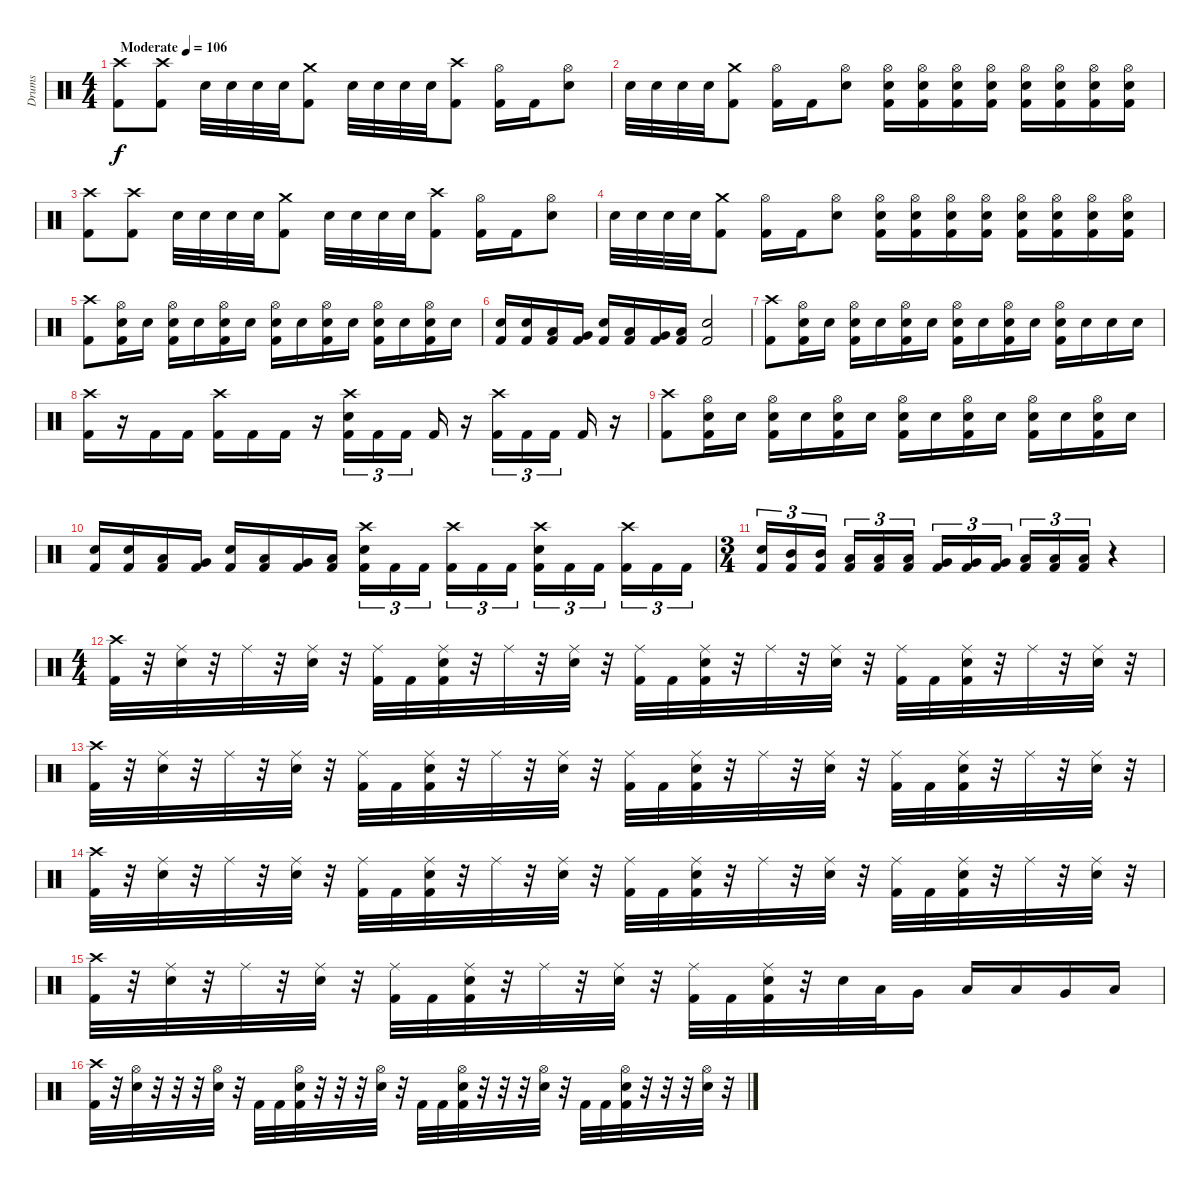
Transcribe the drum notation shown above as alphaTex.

\track ("Drums" "Drums") {instrument percussion}
\staff {score}
\articulation defaults
\ts (4 4)
\tempo (106 "Moderate")
\clef neutral
\ks c
("Crash high (hit)" "Kick (hit) 2").8{dy f} ("Crash high (hit)" "Kick (hit) 2").8 "Electric Snare (hit)".32 "Electric Snare (hit)".32 "Electric Snare (hit)".32 "Electric Snare (hit)".32 ("Crash medium (hit)" "Kick (hit) 2").8 "Electric Snare (hit)".32 "Electric Snare (hit)".32 "Electric Snare (hit)".32 "Electric Snare (hit)".32 ("Crash high (hit)" "Kick (hit) 2").8 ("Hi-Hat (open)" "Kick (hit) 2").16 "Kick (hit) 2".16 ("Hi-Hat (open)" "Electric Snare (hit)").8 |
"Electric Snare (hit)".32 "Electric Snare (hit)".32 "Electric Snare (hit)".32 "Electric Snare (hit)".32 ("Crash medium (hit)" "Kick (hit) 2").8 ("Hi-Hat (open)" "Kick (hit) 2").16 "Kick (hit) 2".16 ("Hi-Hat (open)" "Electric Snare (hit)").8 ("Hi-Hat (open)" "Electric Snare (hit)" "Kick (hit) 2").16 ("Hi-Hat (open)" "Electric Snare (hit)" "Kick (hit) 2").16 ("Hi-Hat (open)" "Electric Snare (hit)" "Kick (hit) 2").16 ("Hi-Hat (open)" "Electric Snare (hit)" "Kick (hit) 2").16 ("Hi-Hat (open)" "Electric Snare (hit)" "Kick (hit) 2").16 ("Hi-Hat (open)" "Electric Snare (hit)" "Kick (hit) 2").16 ("Hi-Hat (open)" "Electric Snare (hit)" "Kick (hit) 2").16 ("Hi-Hat (open)" "Electric Snare (hit)" "Kick (hit) 2").16 |
("Crash high (hit)" "Kick (hit) 2").8 ("Crash high (hit)" "Kick (hit) 2").8 "Electric Snare (hit)".32 "Electric Snare (hit)".32 "Electric Snare (hit)".32 "Electric Snare (hit)".32 ("Crash medium (hit)" "Kick (hit) 2").8 "Electric Snare (hit)".32 "Electric Snare (hit)".32 "Electric Snare (hit)".32 "Electric Snare (hit)".32 ("Crash high (hit)" "Kick (hit) 2").8 ("Hi-Hat (open)" "Kick (hit) 2").16 "Kick (hit) 2".16 ("Hi-Hat (open)" "Electric Snare (hit)").8 |
"Electric Snare (hit)".32 "Electric Snare (hit)".32 "Electric Snare (hit)".32 "Electric Snare (hit)".32 ("Crash medium (hit)" "Kick (hit) 2").8 ("Hi-Hat (open)" "Kick (hit) 2").16 "Kick (hit) 2".16 ("Hi-Hat (open)" "Electric Snare (hit)").8 ("Hi-Hat (open)" "Electric Snare (hit)" "Kick (hit) 2").16 ("Hi-Hat (open)" "Electric Snare (hit)" "Kick (hit) 2").16 ("Hi-Hat (open)" "Electric Snare (hit)" "Kick (hit) 2").16 ("Hi-Hat (open)" "Electric Snare (hit)" "Kick (hit) 2").16 ("Hi-Hat (open)" "Electric Snare (hit)" "Kick (hit) 2").16 ("Hi-Hat (open)" "Electric Snare (hit)" "Kick (hit) 2").16 ("Hi-Hat (open)" "Electric Snare (hit)" "Kick (hit) 2").16 ("Hi-Hat (open)" "Electric Snare (hit)" "Kick (hit) 2").16 |
("Crash high (hit)" "Kick (hit) 2").8 ("Hi-Hat (open)" "Electric Snare (hit)" "Kick (hit) 2").16 "Electric Snare (hit)".16 ("Hi-Hat (open)" "Electric Snare (hit)" "Kick (hit) 2").16 "Electric Snare (hit)".16 ("Hi-Hat (open)" "Electric Snare (hit)" "Kick (hit) 2").16 "Electric Snare (hit)".16 ("Hi-Hat (open)" "Electric Snare (hit)" "Kick (hit) 2").16 "Electric Snare (hit)".16 ("Hi-Hat (open)" "Electric Snare (hit)" "Kick (hit) 2").16 "Electric Snare (hit)".16 ("Hi-Hat (open)" "Electric Snare (hit)" "Kick (hit) 2").16 "Electric Snare (hit)".16 ("Hi-Hat (open)" "Electric Snare (hit)" "Kick (hit) 2").16 "Electric Snare (hit)".16 |
("Electric Snare (hit)" "Kick (hit) 2").16 ("Electric Snare (hit)" "Kick (hit) 2").16 ("Low Tom (hit)" "Kick (hit) 2").16 ("Very Low Tom (hit)" "Kick (hit) 2").16 ("Electric Snare (hit)" "Kick (hit) 2").16 ("Low Tom (hit)" "Kick (hit) 2").16 ("Very Low Tom (hit)" "Kick (hit) 2").16 ("Low Floor Tom (hit)" "Kick (hit) 2").16 ("Electric Snare (hit)" "Kick (hit) 2").2 |
("Crash high (hit)" "Kick (hit) 2").8 ("Hi-Hat (open)" "Electric Snare (hit)" "Kick (hit) 2").16 "Electric Snare (hit)".16 ("Hi-Hat (open)" "Electric Snare (hit)" "Kick (hit) 2").16 "Electric Snare (hit)".16 ("Hi-Hat (open)" "Electric Snare (hit)" "Kick (hit) 2").16 "Electric Snare (hit)".16 ("Hi-Hat (open)" "Electric Snare (hit)" "Kick (hit) 2").16 "Electric Snare (hit)".16 ("Hi-Hat (open)" "Electric Snare (hit)" "Kick (hit) 2").16 "Electric Snare (hit)".16 ("Hi-Hat (open)" "Electric Snare (hit)" "Kick (hit) 2").16 "Electric Snare (hit)".16 "Electric Snare (hit)".16 "Electric Snare (hit)".16 |
("Crash high (hit)" "Kick (hit) 2").16 r.16 "Kick (hit) 2".16 "Kick (hit) 2".16 ("Crash high (hit)" "Kick (hit) 2").16 "Kick (hit) 2".16 "Kick (hit) 2".16 r.16 ("Crash high (hit)" "Electric Snare (hit)" "Kick (hit) 2").16{tu (3 2)} "Kick (hit) 2".16{tu (3 2)} "Kick (hit) 2".16{tu (3 2) beam splitsecondary} "Kick (hit) 2".16 r.16 ("Crash high (hit)" "Kick (hit) 2").16{tu (3 2)} "Kick (hit) 2".16{tu (3 2)} "Kick (hit) 2".16{tu (3 2) beam splitsecondary} "Kick (hit) 2".16 r.16 |
("Crash high (hit)" "Kick (hit) 2").8 ("Hi-Hat (open)" "Electric Snare (hit)" "Kick (hit) 2").16 "Electric Snare (hit)".16 ("Hi-Hat (open)" "Electric Snare (hit)" "Kick (hit) 2").16 "Electric Snare (hit)".16 ("Hi-Hat (open)" "Electric Snare (hit)" "Kick (hit) 2").16 "Electric Snare (hit)".16 ("Hi-Hat (open)" "Electric Snare (hit)" "Kick (hit) 2").16 "Electric Snare (hit)".16 ("Hi-Hat (open)" "Electric Snare (hit)" "Kick (hit) 2").16 "Electric Snare (hit)".16 ("Hi-Hat (open)" "Electric Snare (hit)" "Kick (hit) 2").16 "Electric Snare (hit)".16 ("Hi-Hat (open)" "Electric Snare (hit)" "Kick (hit) 2").16 "Electric Snare (hit)".16 |
("Electric Snare (hit)" "Kick (hit) 2").16 ("Electric Snare (hit)" "Kick (hit) 2").16 ("Low Tom (hit)" "Kick (hit) 2").16 ("Very Low Tom (hit)" "Kick (hit) 2").16 ("Electric Snare (hit)" "Kick (hit) 2").16 ("Low Tom (hit)" "Kick (hit) 2").16 ("Very Low Tom (hit)" "Kick (hit) 2").16 ("Low Floor Tom (hit)" "Kick (hit) 2").16 ("Crash high (hit)" "Electric Snare (hit)" "Kick (hit) 2").16{tu (3 2)} "Kick (hit) 2".16{tu (3 2)} "Kick (hit) 2".16{tu (3 2) beam splitsecondary} ("Crash high (hit)" "Kick (hit) 2").16{tu (3 2)} "Kick (hit) 2".16{tu (3 2)} "Kick (hit) 2".16{tu (3 2)} ("Crash high (hit)" "Electric Snare (hit)" "Kick (hit) 2").16{tu (3 2)} "Kick (hit) 2".16{tu (3 2)} "Kick (hit) 2".16{tu (3 2) beam splitsecondary} ("Crash high (hit)" "Kick (hit) 2").16{tu (3 2)} "Kick (hit) 2".16{tu (3 2)} "Kick (hit) 2".16{tu (3 2)} |
\ts (3 4)
("Electric Snare (hit)" "Kick (hit) 2").16{tu (3 2)} ("Mid Tom (hit)" "Kick (hit) 2").16{tu (3 2)} ("Mid Tom (hit)" "Kick (hit) 2").16{tu (3 2) beam splitsecondary} ("Low Tom (hit)" "Kick (hit) 2").16{tu (3 2)} ("Low Tom (hit)" "Kick (hit) 2").16{tu (3 2)} ("Low Tom (hit)" "Kick (hit) 2").16{tu (3 2)} ("Very Low Tom (hit)" "Kick (hit) 2").16{tu (3 2)} ("Very Low Tom (hit)" "Kick (hit) 2").16{tu (3 2)} ("Very Low Tom (hit)" "Kick (hit) 2").16{tu (3 2) beam splitsecondary} ("Low Floor Tom (hit)" "Kick (hit) 2").16{tu (3 2)} ("Low Floor Tom (hit)" "Kick (hit) 2").16{tu (3 2)} ("Low Floor Tom (hit)" "Kick (hit) 2").16{tu (3 2)} r.4 |
\ts (4 4)
("Crash high (hit)" "Kick (hit) 2").32 r.32 ("Ride (middle)" "Electric Snare (hit)").32 r.32 "Ride (middle)".32 r.32 ("Ride (middle)" "Electric Snare (hit)").32 r.32 ("Ride (middle)" "Kick (hit) 2").32 "Kick (hit) 2".32 ("Ride (middle)" "Electric Snare (hit)" "Kick (hit) 2").32 r.32 "Ride (middle)".32 r.32 ("Ride (middle)" "Electric Snare (hit)").32 r.32 ("Ride (middle)" "Kick (hit) 2").32 "Kick (hit) 2".32 ("Ride (middle)" "Electric Snare (hit)" "Kick (hit) 2").32 r.32 "Ride (middle)".32 r.32 ("Ride (middle)" "Electric Snare (hit)").32 r.32 ("Ride (middle)" "Kick (hit) 2").32 "Kick (hit) 2".32 ("Ride (middle)" "Electric Snare (hit)" "Kick (hit) 2").32 r.32 "Ride (middle)".32 r.32 ("Ride (middle)" "Electric Snare (hit)").32 r.32 |
("Crash high (hit)" "Kick (hit) 2").32 r.32 ("Ride (middle)" "Electric Snare (hit)").32 r.32 "Ride (middle)".32 r.32 ("Ride (middle)" "Electric Snare (hit)").32 r.32 ("Ride (middle)" "Kick (hit) 2").32 "Kick (hit) 2".32 ("Ride (middle)" "Electric Snare (hit)" "Kick (hit) 2").32 r.32 "Ride (middle)".32 r.32 ("Ride (middle)" "Electric Snare (hit)").32 r.32 ("Ride (middle)" "Kick (hit) 2").32 "Kick (hit) 2".32 ("Ride (middle)" "Electric Snare (hit)" "Kick (hit) 2").32 r.32 "Ride (middle)".32 r.32 ("Ride (middle)" "Electric Snare (hit)").32 r.32 ("Ride (middle)" "Kick (hit) 2").32 "Kick (hit) 2".32 ("Ride (middle)" "Electric Snare (hit)" "Kick (hit) 2").32 r.32 "Ride (middle)".32 r.32 ("Ride (middle)" "Electric Snare (hit)").32 r.32 |
("Crash high (hit)" "Kick (hit) 2").32 r.32 ("Ride (middle)" "Electric Snare (hit)").32 r.32 "Ride (middle)".32 r.32 ("Ride (middle)" "Electric Snare (hit)").32 r.32 ("Ride (middle)" "Kick (hit) 2").32 "Kick (hit) 2".32 ("Ride (middle)" "Electric Snare (hit)" "Kick (hit) 2").32 r.32 "Ride (middle)".32 r.32 ("Ride (middle)" "Electric Snare (hit)").32 r.32 ("Ride (middle)" "Kick (hit) 2").32 "Kick (hit) 2".32 ("Ride (middle)" "Electric Snare (hit)" "Kick (hit) 2").32 r.32 "Ride (middle)".32 r.32 ("Ride (middle)" "Electric Snare (hit)").32 r.32 ("Ride (middle)" "Kick (hit) 2").32 "Kick (hit) 2".32 ("Ride (middle)" "Electric Snare (hit)" "Kick (hit) 2").32 r.32 "Ride (middle)".32 r.32 ("Ride (middle)" "Electric Snare (hit)").32 r.32 |
("Crash high (hit)" "Kick (hit) 2").32 r.32 ("Ride (middle)" "Electric Snare (hit)").32 r.32 "Ride (middle)".32 r.32 ("Ride (middle)" "Electric Snare (hit)").32 r.32 ("Ride (middle)" "Kick (hit) 2").32 "Kick (hit) 2".32 ("Ride (middle)" "Electric Snare (hit)" "Kick (hit) 2").32 r.32 "Ride (middle)".32 r.32 ("Ride (middle)" "Electric Snare (hit)").32 r.32 ("Ride (middle)" "Kick (hit) 2").32 "Kick (hit) 2".32 ("Ride (middle)" "Electric Snare (hit)" "Kick (hit) 2").32 r.32 "Electric Snare (hit)".32 "Low Tom (hit)".32 "Very Low Tom (hit)".16 "Low Floor Tom (hit)".16 "Low Tom (hit)".16 "Very Low Tom (hit)".16 "Low Floor Tom (hit)".16 |
("Crash high (hit)" "Kick (hit) 2").32 r.32 ("Hi-Hat (open)" "Electric Snare (hit)").32 r.32 r.32 r.32 ("Hi-Hat (open)" "Electric Snare (hit)").32 r.32 "Kick (hit) 2".32 "Kick (hit) 2".32 ("Hi-Hat (open)" "Electric Snare (hit)" "Kick (hit) 2").32 r.32 r.32 r.32 ("Hi-Hat (open)" "Electric Snare (hit)").32 r.32 "Kick (hit) 2".32 "Kick (hit) 2".32 ("Hi-Hat (open)" "Electric Snare (hit)" "Kick (hit) 2").32 r.32 r.32 r.32 ("Hi-Hat (open)" "Electric Snare (hit)").32 r.32 "Kick (hit) 2".32 "Kick (hit) 2".32 ("Hi-Hat (open)" "Electric Snare (hit)" "Kick (hit) 2").32 r.32 r.32 r.32 ("Hi-Hat (open)" "Electric Snare (hit)").32 r.32
